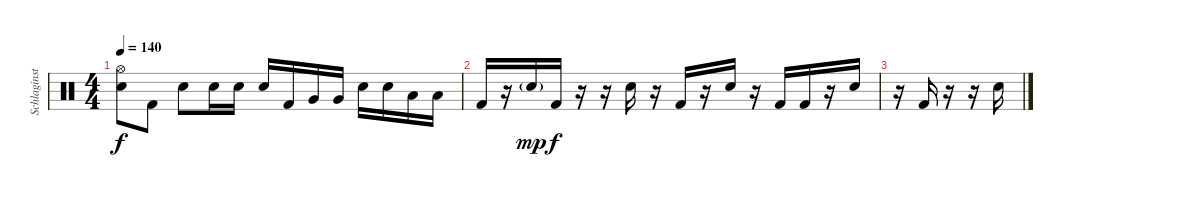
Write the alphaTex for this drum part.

\track ("Schlaginstrumente - Auswahl" "Schlaginst") {instrument percussion}
\staff {score}
\articulation defaults
\ts (4 4)
\tempo 140
\clef neutral
\ks c
("Hi-Hat (open)" "Snare (hit) 2").8{dy f} "Kick (hit) 2".8 "Snare (hit) 2".8 "Snare (hit) 2".16 "Snare (hit) 2".16 "Snare (hit) 2".16 "Kick (hit) 2".16 "Very Low Tom (hit)".16 "Very Low Tom (hit)".16 "Snare (hit) 2".16 "Snare (hit) 2".16 "Low Tom (hit)".16 "Low Tom (hit)".16 |
"Kick (hit) 2".16 r.16 "Snare (hit) 2"{g}.16{dy mp} "Kick (hit) 2".16{dy f} r.16 r.16 "Snare (hit) 2".16 r.16 "Kick (hit) 2".16 r.16 "Snare (hit) 2".16 r.16 "Kick (hit) 2".16 "Kick (hit) 2".16 r.16 "Snare (hit) 2".16 |
r.16 "Kick (hit) 2".16 r.16 r.16 "Snare (hit) 2".16
